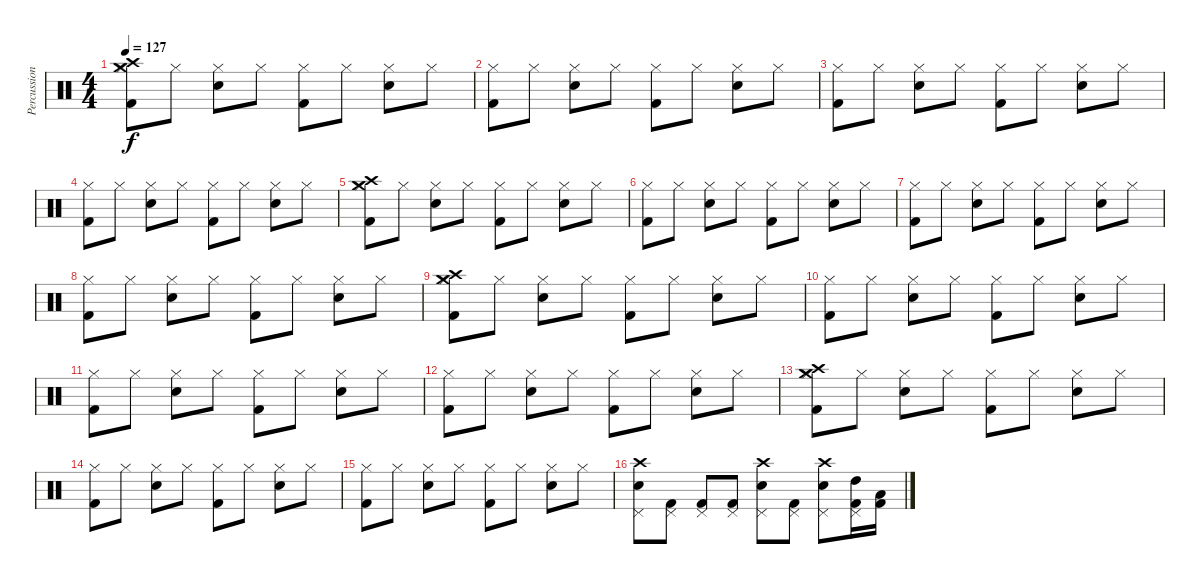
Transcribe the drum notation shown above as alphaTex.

\track ("Percussion" "Percussion") {instrument percussion}
\staff {score}
\articulation defaults
\ts (4 4)
\tempo 127
\clef neutral
\ks c
("Crash medium (hit)" "Crash high (hit)" "Hi-Hat (closed)" "Kick (hit) 2").8{dy f} "Hi-Hat (closed)".8 ("Hi-Hat (closed)" "Snare (hit) 2").8 "Hi-Hat (closed)".8 ("Hi-Hat (closed)" "Kick (hit) 2").8 "Hi-Hat (closed)".8 ("Hi-Hat (closed)" "Snare (hit) 2").8 "Hi-Hat (closed)".8 |
("Hi-Hat (closed)" "Kick (hit) 2").8 "Hi-Hat (closed)".8 ("Hi-Hat (closed)" "Snare (hit) 2").8 "Hi-Hat (closed)".8 ("Hi-Hat (closed)" "Kick (hit) 2").8 "Hi-Hat (closed)".8 ("Hi-Hat (closed)" "Snare (hit) 2").8 "Hi-Hat (closed)".8 |
("Hi-Hat (closed)" "Kick (hit) 2").8 "Hi-Hat (closed)".8 ("Hi-Hat (closed)" "Snare (hit) 2").8 "Hi-Hat (closed)".8 ("Hi-Hat (closed)" "Kick (hit) 2").8 "Hi-Hat (closed)".8 ("Hi-Hat (closed)" "Snare (hit) 2").8 "Hi-Hat (closed)".8 |
("Hi-Hat (closed)" "Kick (hit) 2").8 "Hi-Hat (closed)".8 ("Hi-Hat (closed)" "Snare (hit) 2").8 "Hi-Hat (closed)".8 ("Hi-Hat (closed)" "Kick (hit) 2").8 "Hi-Hat (closed)".8 ("Hi-Hat (closed)" "Snare (hit) 2").8 "Hi-Hat (closed)".8 |
("Crash medium (hit)" "Crash high (hit)" "Hi-Hat (closed)" "Kick (hit) 2").8 "Hi-Hat (closed)".8 ("Hi-Hat (closed)" "Snare (hit) 2").8 "Hi-Hat (closed)".8 ("Hi-Hat (closed)" "Kick (hit) 2").8 "Hi-Hat (closed)".8 ("Hi-Hat (closed)" "Snare (hit) 2").8 "Hi-Hat (closed)".8 |
("Hi-Hat (closed)" "Kick (hit) 2").8 "Hi-Hat (closed)".8 ("Hi-Hat (closed)" "Snare (hit) 2").8 "Hi-Hat (closed)".8 ("Hi-Hat (closed)" "Kick (hit) 2").8 "Hi-Hat (closed)".8 ("Hi-Hat (closed)" "Snare (hit) 2").8 "Hi-Hat (closed)".8 |
("Hi-Hat (closed)" "Kick (hit) 2").8 "Hi-Hat (closed)".8 ("Hi-Hat (closed)" "Snare (hit) 2").8 "Hi-Hat (closed)".8 ("Hi-Hat (closed)" "Kick (hit) 2").8 "Hi-Hat (closed)".8 ("Hi-Hat (closed)" "Snare (hit) 2").8 "Hi-Hat (closed)".8 |
("Hi-Hat (closed)" "Kick (hit) 2").8 "Hi-Hat (closed)".8 ("Hi-Hat (closed)" "Snare (hit) 2").8 "Hi-Hat (closed)".8 ("Hi-Hat (closed)" "Kick (hit) 2").8 "Hi-Hat (closed)".8 ("Hi-Hat (closed)" "Snare (hit) 2").8 "Hi-Hat (closed)".8 |
("Crash medium (hit)" "Crash high (hit)" "Hi-Hat (closed)" "Kick (hit) 2").8 "Hi-Hat (closed)".8 ("Hi-Hat (closed)" "Snare (hit) 2").8 "Hi-Hat (closed)".8 ("Hi-Hat (closed)" "Kick (hit) 2").8 "Hi-Hat (closed)".8 ("Hi-Hat (closed)" "Snare (hit) 2").8 "Hi-Hat (closed)".8 |
("Hi-Hat (closed)" "Kick (hit) 2").8 "Hi-Hat (closed)".8 ("Hi-Hat (closed)" "Snare (hit) 2").8 "Hi-Hat (closed)".8 ("Hi-Hat (closed)" "Kick (hit) 2").8 "Hi-Hat (closed)".8 ("Hi-Hat (closed)" "Snare (hit) 2").8 "Hi-Hat (closed)".8 |
("Hi-Hat (closed)" "Kick (hit) 2").8 "Hi-Hat (closed)".8 ("Hi-Hat (closed)" "Snare (hit) 2").8 "Hi-Hat (closed)".8 ("Hi-Hat (closed)" "Kick (hit) 2").8 "Hi-Hat (closed)".8 ("Hi-Hat (closed)" "Snare (hit) 2").8 "Hi-Hat (closed)".8 |
("Hi-Hat (closed)" "Kick (hit) 2").8 "Hi-Hat (closed)".8 ("Hi-Hat (closed)" "Snare (hit) 2").8 "Hi-Hat (closed)".8 ("Hi-Hat (closed)" "Kick (hit) 2").8 "Hi-Hat (closed)".8 ("Hi-Hat (closed)" "Snare (hit) 2").8 "Hi-Hat (closed)".8 |
("Crash medium (hit)" "Crash high (hit)" "Hi-Hat (closed)" "Kick (hit) 2").8 "Hi-Hat (closed)".8 ("Hi-Hat (closed)" "Snare (hit) 2").8 "Hi-Hat (closed)".8 ("Hi-Hat (closed)" "Kick (hit) 2").8 "Hi-Hat (closed)".8 ("Hi-Hat (closed)" "Snare (hit) 2").8 "Hi-Hat (closed)".8 |
("Hi-Hat (closed)" "Kick (hit) 2").8 "Hi-Hat (closed)".8 ("Hi-Hat (closed)" "Snare (hit) 2").8 "Hi-Hat (closed)".8 ("Hi-Hat (closed)" "Kick (hit) 2").8 "Hi-Hat (closed)".8 ("Hi-Hat (closed)" "Snare (hit) 2").8 "Hi-Hat (closed)".8 |
("Hi-Hat (closed)" "Kick (hit) 2").8 "Hi-Hat (closed)".8 ("Hi-Hat (closed)" "Snare (hit) 2").8 "Hi-Hat (closed)".8 ("Hi-Hat (closed)" "Kick (hit) 2").8 "Hi-Hat (closed)".8 ("Hi-Hat (closed)" "Snare (hit) 2").8 "Hi-Hat (closed)".8 |
("Crash high (hit)" "Pedal Hi-Hat (hit)" "Snare (hit) 2").8 ("Pedal Hi-Hat (hit)" "Kick (hit) 2").8 ("Pedal Hi-Hat (hit)" "Kick (hit) 2").8 ("Pedal Hi-Hat (hit)" "Kick (hit) 2").8 ("Crash high (hit)" "Pedal Hi-Hat (hit)" "Snare (hit) 2").8 ("Pedal Hi-Hat (hit)" "Kick (hit) 2").8 ("Crash high (hit)" "Pedal Hi-Hat (hit)" "Snare (hit) 2").8 ("Pedal Hi-Hat (hit)" "High Tom (hit)" "Kick (hit) 2").16 ("Low Tom (hit)" "Kick (hit) 2").16
